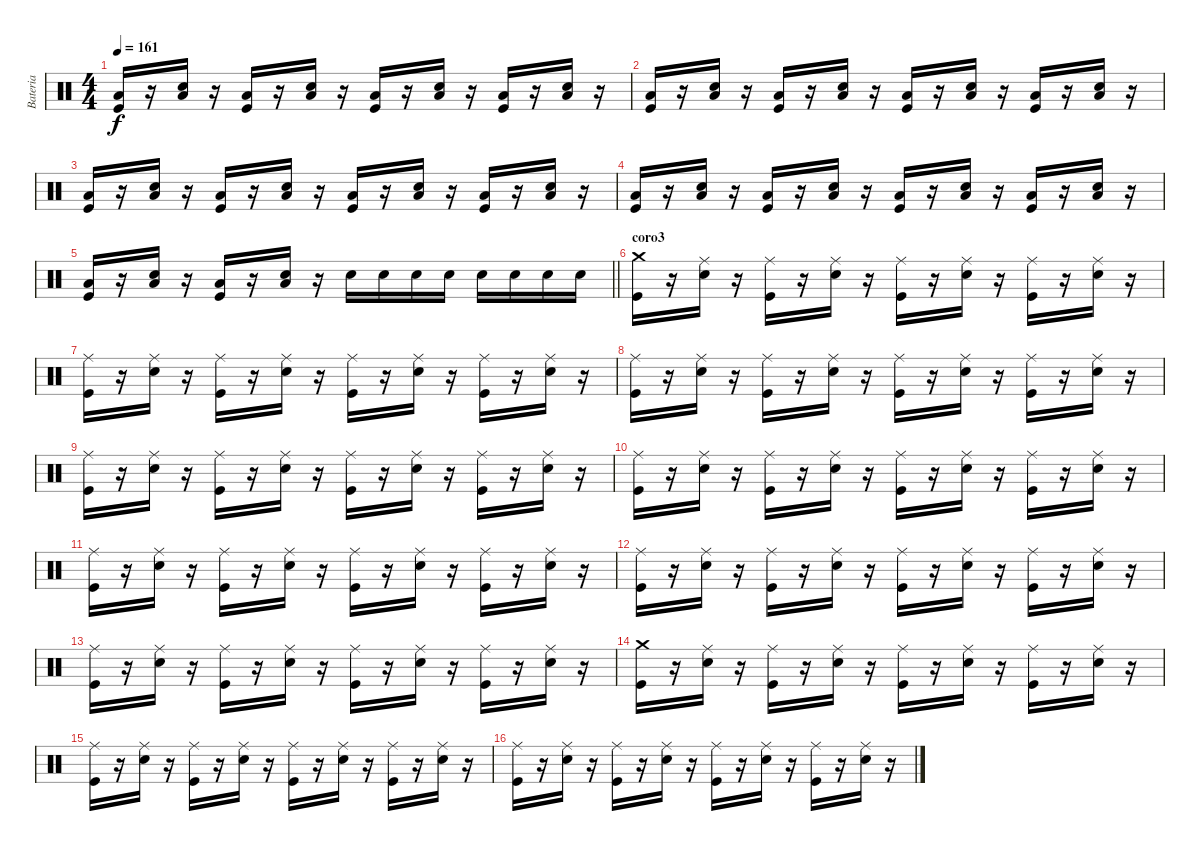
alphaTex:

\track ("Bateria" "Bateria") {instrument percussion}
\staff {score}
\articulation defaults
\ts (4 4)
\tempo 161
\clef neutral
\ks c
("Low Floor Tom (hit)" "Kick (hit)").16{dy f} r.16 ("Low Floor Tom (hit)" "Snare (hit) 2").16 r.16 ("Low Floor Tom (hit)" "Kick (hit)").16 r.16 ("Low Floor Tom (hit)" "Snare (hit) 2").16 r.16 ("Low Floor Tom (hit)" "Kick (hit)").16 r.16 ("Low Floor Tom (hit)" "Snare (hit) 2").16 r.16 ("Low Floor Tom (hit)" "Kick (hit)").16 r.16 ("Low Floor Tom (hit)" "Snare (hit) 2").16 r.16 |
("Low Floor Tom (hit)" "Kick (hit)").16 r.16 ("Low Floor Tom (hit)" "Snare (hit) 2").16 r.16 ("Low Floor Tom (hit)" "Kick (hit)").16 r.16 ("Low Floor Tom (hit)" "Snare (hit) 2").16 r.16 ("Low Floor Tom (hit)" "Kick (hit)").16 r.16 ("Low Floor Tom (hit)" "Snare (hit) 2").16 r.16 ("Low Floor Tom (hit)" "Kick (hit)").16 r.16 ("Low Floor Tom (hit)" "Snare (hit) 2").16 r.16 |
("Low Floor Tom (hit)" "Kick (hit)").16 r.16 ("Low Floor Tom (hit)" "Snare (hit) 2").16 r.16 ("Low Floor Tom (hit)" "Kick (hit)").16 r.16 ("Low Floor Tom (hit)" "Snare (hit) 2").16 r.16 ("Low Floor Tom (hit)" "Kick (hit)").16 r.16 ("Low Floor Tom (hit)" "Snare (hit) 2").16 r.16 ("Low Floor Tom (hit)" "Kick (hit)").16 r.16 ("Low Floor Tom (hit)" "Snare (hit) 2").16 r.16 |
("Low Floor Tom (hit)" "Kick (hit)").16 r.16 ("Low Floor Tom (hit)" "Snare (hit) 2").16 r.16 ("Low Floor Tom (hit)" "Kick (hit)").16 r.16 ("Low Floor Tom (hit)" "Snare (hit) 2").16 r.16 ("Low Floor Tom (hit)" "Kick (hit)").16 r.16 ("Low Floor Tom (hit)" "Snare (hit) 2").16 r.16 ("Low Floor Tom (hit)" "Kick (hit)").16 r.16 ("Low Floor Tom (hit)" "Snare (hit) 2").16 r.16 |
\barLineRight lightlight
("Low Floor Tom (hit)" "Kick (hit)").16 r.16 ("Low Floor Tom (hit)" "Snare (hit) 2").16 r.16 ("Low Floor Tom (hit)" "Kick (hit)").16 r.16 ("Low Floor Tom (hit)" "Snare (hit) 2").16 r.16 "Snare (hit) 2".16 "Snare (hit) 2".16 "Snare (hit) 2".16 "Snare (hit) 2".16 "Snare (hit) 2".16 "Snare (hit) 2".16 "Snare (hit) 2".16 "Snare (hit) 2".16 |
\section ("" "coro3")
("Crash medium (hit)" "Kick (hit)").16 r.16 ("Ride (middle)" "Snare (hit) 2").16 r.16 ("Ride (middle)" "Kick (hit)").16 r.16 ("Ride (middle)" "Snare (hit) 2").16 r.16 ("Ride (middle)" "Kick (hit)").16 r.16 ("Ride (middle)" "Snare (hit) 2").16 r.16 ("Ride (middle)" "Kick (hit)").16 r.16 ("Ride (middle)" "Snare (hit) 2").16 r.16 |
("Ride (middle)" "Kick (hit)").16 r.16 ("Ride (middle)" "Snare (hit) 2").16 r.16 ("Ride (middle)" "Kick (hit)").16 r.16 ("Ride (middle)" "Snare (hit) 2").16 r.16 ("Ride (middle)" "Kick (hit)").16 r.16 ("Ride (middle)" "Snare (hit) 2").16 r.16 ("Ride (middle)" "Kick (hit)").16 r.16 ("Ride (middle)" "Snare (hit) 2").16 r.16 |
("Ride (middle)" "Kick (hit)").16 r.16 ("Ride (middle)" "Snare (hit) 2").16 r.16 ("Ride (middle)" "Kick (hit)").16 r.16 ("Ride (middle)" "Snare (hit) 2").16 r.16 ("Ride (middle)" "Kick (hit)").16 r.16 ("Ride (middle)" "Snare (hit) 2").16 r.16 ("Ride (middle)" "Kick (hit)").16 r.16 ("Ride (middle)" "Snare (hit) 2").16 r.16 |
("Ride (middle)" "Kick (hit)").16 r.16 ("Ride (middle)" "Snare (hit) 2").16 r.16 ("Ride (middle)" "Kick (hit)").16 r.16 ("Ride (middle)" "Snare (hit) 2").16 r.16 ("Ride (middle)" "Kick (hit)").16 r.16 ("Ride (middle)" "Snare (hit) 2").16 r.16 ("Ride (middle)" "Kick (hit)").16 r.16 ("Ride (middle)" "Snare (hit) 2").16 r.16 |
("Ride (middle)" "Kick (hit)").16 r.16 ("Ride (middle)" "Snare (hit) 2").16 r.16 ("Ride (middle)" "Kick (hit)").16 r.16 ("Ride (middle)" "Snare (hit) 2").16 r.16 ("Ride (middle)" "Kick (hit)").16 r.16 ("Ride (middle)" "Snare (hit) 2").16 r.16 ("Ride (middle)" "Kick (hit)").16 r.16 ("Ride (middle)" "Snare (hit) 2").16 r.16 |
("Ride (middle)" "Kick (hit)").16 r.16 ("Ride (middle)" "Snare (hit) 2").16 r.16 ("Ride (middle)" "Kick (hit)").16 r.16 ("Ride (middle)" "Snare (hit) 2").16 r.16 ("Ride (middle)" "Kick (hit)").16 r.16 ("Ride (middle)" "Snare (hit) 2").16 r.16 ("Ride (middle)" "Kick (hit)").16 r.16 ("Ride (middle)" "Snare (hit) 2").16 r.16 |
("Ride (middle)" "Kick (hit)").16 r.16 ("Ride (middle)" "Snare (hit) 2").16 r.16 ("Ride (middle)" "Kick (hit)").16 r.16 ("Ride (middle)" "Snare (hit) 2").16 r.16 ("Ride (middle)" "Kick (hit)").16 r.16 ("Ride (middle)" "Snare (hit) 2").16 r.16 ("Ride (middle)" "Kick (hit)").16 r.16 ("Ride (middle)" "Snare (hit) 2").16 r.16 |
("Ride (middle)" "Kick (hit)").16 r.16 ("Ride (middle)" "Snare (hit) 2").16 r.16 ("Ride (middle)" "Kick (hit)").16 r.16 ("Ride (middle)" "Snare (hit) 2").16 r.16 ("Ride (middle)" "Kick (hit)").16 r.16 ("Ride (middle)" "Snare (hit) 2").16 r.16 ("Ride (middle)" "Kick (hit)").16 r.16 ("Ride (middle)" "Snare (hit) 2").16 r.16 |
("Crash medium (hit)" "Kick (hit)").16 r.16 ("Ride (middle)" "Snare (hit) 2").16 r.16 ("Ride (middle)" "Kick (hit)").16 r.16 ("Ride (middle)" "Snare (hit) 2").16 r.16 ("Ride (middle)" "Kick (hit)").16 r.16 ("Ride (middle)" "Snare (hit) 2").16 r.16 ("Ride (middle)" "Kick (hit)").16 r.16 ("Ride (middle)" "Snare (hit) 2").16 r.16 |
("Ride (middle)" "Kick (hit)").16 r.16 ("Ride (middle)" "Snare (hit) 2").16 r.16 ("Ride (middle)" "Kick (hit)").16 r.16 ("Ride (middle)" "Snare (hit) 2").16 r.16 ("Ride (middle)" "Kick (hit)").16 r.16 ("Ride (middle)" "Snare (hit) 2").16 r.16 ("Ride (middle)" "Kick (hit)").16 r.16 ("Ride (middle)" "Snare (hit) 2").16 r.16 |
("Ride (middle)" "Kick (hit)").16 r.16 ("Ride (middle)" "Snare (hit) 2").16 r.16 ("Ride (middle)" "Kick (hit)").16 r.16 ("Ride (middle)" "Snare (hit) 2").16 r.16 ("Ride (middle)" "Kick (hit)").16 r.16 ("Ride (middle)" "Snare (hit) 2").16 r.16 ("Ride (middle)" "Kick (hit)").16 r.16 ("Ride (middle)" "Snare (hit) 2").16 r.16
